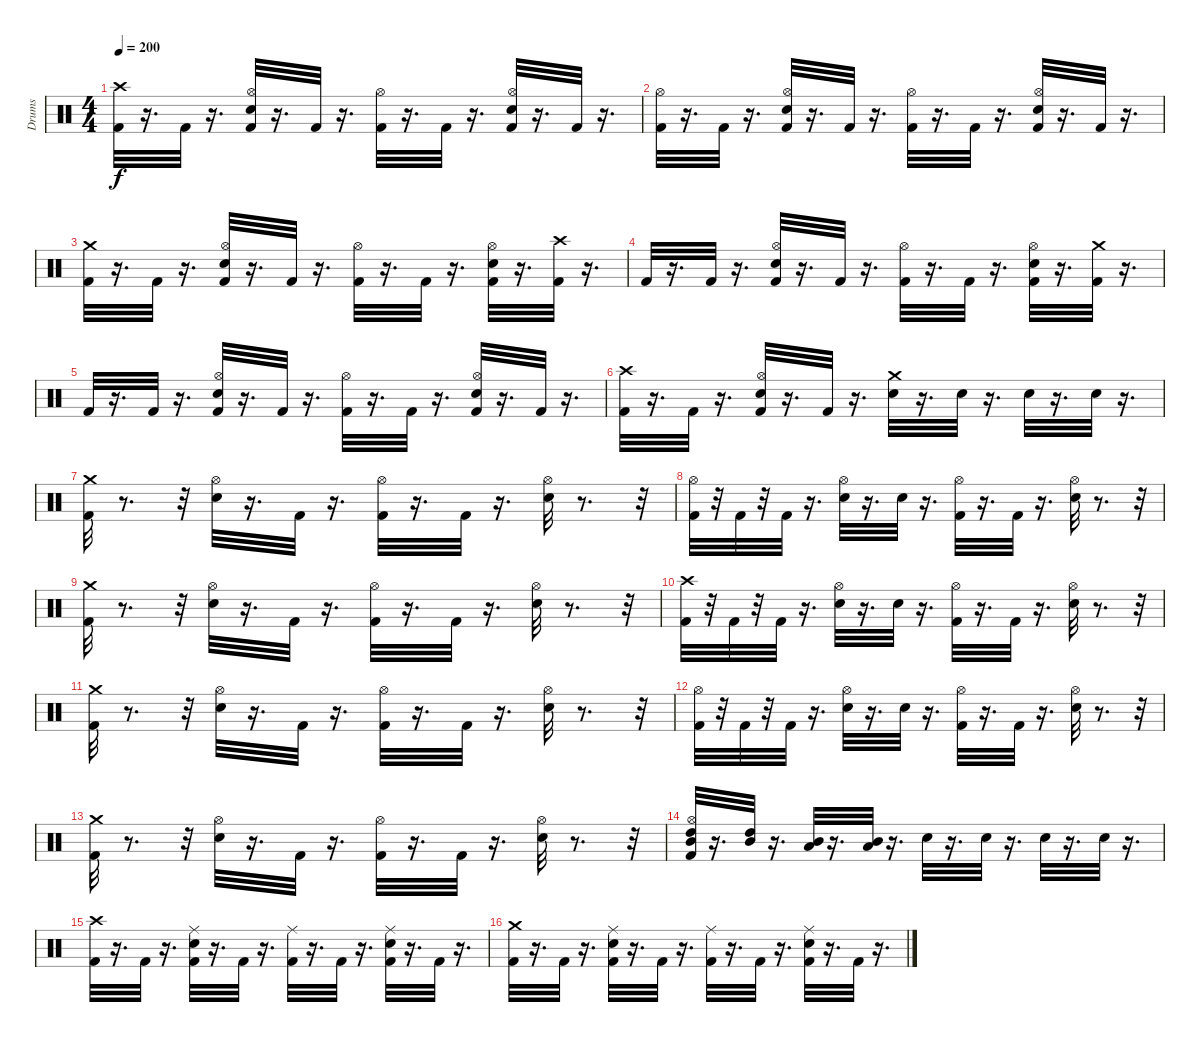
\track ("Drums" "Drums") {instrument percussion}
\staff {score}
\articulation defaults
\ts (4 4)
\tempo 200
\clef neutral
\ks c
("Kick (hit) 2" "Crash high (hit)").32{dy f} r.16{d} "Kick (hit) 2".32 r.16{d} ("Hi-Hat (open)" "Kick (hit) 2" "Electric Snare (hit)").32 r.16{d} "Kick (hit) 2".32 r.16{d} ("Hi-Hat (open)" "Kick (hit) 2").32 r.16{d} "Kick (hit) 2".32 r.16{d} ("Hi-Hat (open)" "Kick (hit) 2" "Electric Snare (hit)").32 r.16{d} "Kick (hit) 2".32 r.16{d} |
("Hi-Hat (open)" "Kick (hit) 2").32 r.16{d} "Kick (hit) 2".32 r.16{d} ("Hi-Hat (open)" "Electric Snare (hit)" "Kick (hit) 2").32 r.16{d} "Kick (hit) 2".32 r.16{d} ("Hi-Hat (open)" "Kick (hit) 2").32 r.16{d} "Kick (hit) 2".32 r.16{d} ("Hi-Hat (open)" "Electric Snare (hit)" "Kick (hit) 2").32 r.16{d} "Kick (hit) 2".32 r.16{d} |
("Kick (hit) 2" "Crash medium (hit)").32 r.16{d} "Kick (hit) 2".32 r.16{d} ("Kick (hit) 2" "Electric Snare (hit)" "Hi-Hat (open)").32 r.16{d} "Kick (hit) 2".32 r.16{d} ("Kick (hit) 2" "Hi-Hat (open)").32 r.16{d} "Kick (hit) 2".32 r.16{d} ("Kick (hit) 2" "Electric Snare (hit)" "Hi-Hat (open)").32 r.16{d} ("Kick (hit) 2" "Crash high (hit)").32 r.16{d} |
"Kick (hit) 2".32 r.16{d} "Kick (hit) 2".32 r.16{d} ("Hi-Hat (open)" "Kick (hit) 2" "Electric Snare (hit)").32 r.16{d} "Kick (hit) 2".32 r.16{d} ("Hi-Hat (open)" "Kick (hit) 2").32 r.16{d} "Kick (hit) 2".32 r.16{d} ("Hi-Hat (open)" "Electric Snare (hit)" "Kick (hit) 2").32 r.16{d} ("Crash medium (hit)" "Kick (hit) 2").32 r.16{d} |
"Kick (hit) 2".32 r.16{d} "Kick (hit) 2".32 r.16{d} ("Hi-Hat (open)" "Kick (hit) 2" "Electric Snare (hit)").32 r.16{d} "Kick (hit) 2".32 r.16{d} ("Hi-Hat (open)" "Kick (hit) 2").32 r.16{d} "Kick (hit) 2".32 r.16{d} ("Hi-Hat (open)" "Electric Snare (hit)" "Kick (hit) 2").32 r.16{d} "Kick (hit) 2".32 r.16{d} |
("Crash high (hit)" "Kick (hit) 2").32 r.16{d} "Kick (hit) 2".32 r.16{d} ("Electric Snare (hit)" "Kick (hit) 2" "Hi-Hat (open)").32 r.16{d} "Kick (hit) 2".32 r.16{d} ("Electric Snare (hit)" "Crash medium (hit)").32 r.16{d} "Electric Snare (hit)".32 r.16{d} "Electric Snare (hit)".32 r.16{d} "Electric Snare (hit)".32 r.16{d} |
("Crash medium (hit)" "Kick (hit) 2").32 r.8{d} r.32 ("Hi-Hat (open)" "Electric Snare (hit)").32 r.16{d} "Kick (hit) 2".32 r.16{d} ("Hi-Hat (open)" "Kick (hit) 2").32 r.16{d} "Kick (hit) 2".32 r.16{d} ("Hi-Hat (open)" "Electric Snare (hit)").32 r.8{d} r.32 |
("Hi-Hat (open)" "Kick (hit) 2").32 r.32 "Kick (hit) 2".32 r.32 "Kick (hit) 2".32 r.16{d} ("Hi-Hat (open)" "Electric Snare (hit)").32 r.16{d} "Electric Snare (hit)".32 r.16{d} ("Hi-Hat (open)" "Kick (hit) 2").32 r.16{d} "Kick (hit) 2".32 r.16{d} ("Hi-Hat (open)" "Electric Snare (hit)").32 r.8{d} r.32 |
("Crash medium (hit)" "Kick (hit) 2").32 r.8{d} r.32 ("Hi-Hat (open)" "Electric Snare (hit)").32 r.16{d} "Kick (hit) 2".32 r.16{d} ("Hi-Hat (open)" "Kick (hit) 2").32 r.16{d} "Kick (hit) 2".32 r.16{d} ("Hi-Hat (open)" "Electric Snare (hit)").32 r.8{d} r.32 |
("Crash high (hit)" "Kick (hit) 2").32 r.32 "Kick (hit) 2".32 r.32 "Kick (hit) 2".32 r.16{d} ("Hi-Hat (open)" "Electric Snare (hit)").32 r.16{d} "Electric Snare (hit)".32 r.16{d} ("Hi-Hat (open)" "Kick (hit) 2").32 r.16{d} "Kick (hit) 2".32 r.16{d} ("Hi-Hat (open)" "Electric Snare (hit)").32 r.8{d} r.32 |
("Crash medium (hit)" "Kick (hit) 2").32 r.8{d} r.32 ("Hi-Hat (open)" "Electric Snare (hit)").32 r.16{d} "Kick (hit) 2".32 r.16{d} ("Hi-Hat (open)" "Kick (hit) 2").32 r.16{d} "Kick (hit) 2".32 r.16{d} ("Hi-Hat (open)" "Electric Snare (hit)").32 r.8{d} r.32 |
("Hi-Hat (open)" "Kick (hit) 2").32 r.32 "Kick (hit) 2".32 r.32 "Kick (hit) 2".32 r.16{d} ("Hi-Hat (open)" "Electric Snare (hit)").32 r.16{d} "Electric Snare (hit)".32 r.16{d} ("Hi-Hat (open)" "Kick (hit) 2").32 r.16{d} "Kick (hit) 2".32 r.16{d} ("Hi-Hat (open)" "Electric Snare (hit)").32 r.8{d} r.32 |
("Crash medium (hit)" "Kick (hit) 2").32 r.8{d} r.32 ("Hi-Hat (open)" "Electric Snare (hit)").32 r.16{d} "Kick (hit) 2".32 r.16{d} ("Hi-Hat (open)" "Kick (hit) 2").32 r.16{d} "Kick (hit) 2".32 r.16{d} ("Hi-Hat (open)" "Electric Snare (hit)").32 r.8{d} r.32 |
("Mid Tom (hit)" "High Tom (hit)" "Hi-Hat (open)" "Kick (hit) 2").32 r.16{d} ("Mid Tom (hit)" "High Tom (hit)").32 r.16{d} ("Low Tom (hit)" "Mid Tom (hit)").32 r.16{d} ("Low Tom (hit)" "Mid Tom (hit)").32 r.16{d} "Electric Snare (hit)".32 r.16{d} "Electric Snare (hit)".32 r.16{d} "Electric Snare (hit)".32 r.16{d} "Electric Snare (hit)".32 r.16{d} |
("Crash high (hit)" "Kick (hit) 2").32 r.16{d} "Kick (hit) 2".32 r.16{d} ("Ride (middle)" "Electric Snare (hit)" "Kick (hit) 2").32 r.16{d} "Kick (hit) 2".32 r.16{d} ("Ride (middle)" "Kick (hit) 2").32 r.16{d} "Kick (hit) 2".32 r.16{d} ("Ride (middle)" "Kick (hit) 2" "Electric Snare (hit)").32 r.16{d} "Kick (hit) 2".32 r.16{d} |
("Crash medium (hit)" "Kick (hit) 2").32 r.16{d} "Kick (hit) 2".32 r.16{d} ("Electric Snare (hit)" "Kick (hit) 2" "Ride (middle)").32 r.16{d} "Kick (hit) 2".32 r.16{d} ("Ride (middle)" "Kick (hit) 2").32 r.16{d} "Kick (hit) 2".32 r.16{d} ("Ride (middle)" "Kick (hit) 2" "Electric Snare (hit)").32 r.16{d} "Kick (hit) 2".32 r.16{d}
